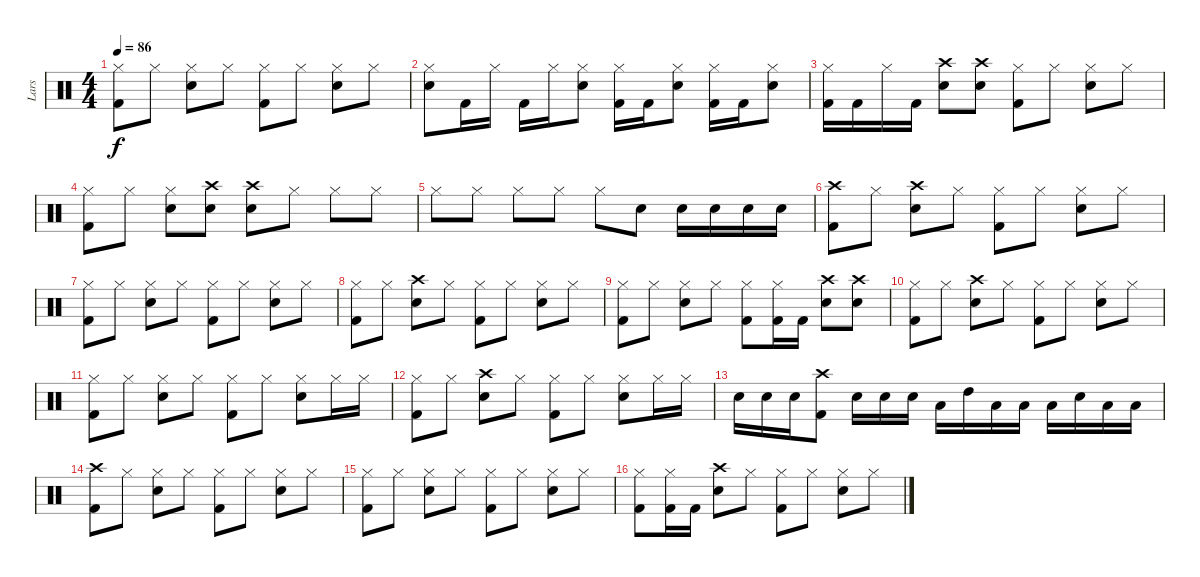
\track ("Lars" "Lars") {instrument percussion}
\staff {score}
\articulation defaults
\ts (4 4)
\tempo 86
\clef neutral
\ks c
("Hi-Hat (closed)" "Kick (hit) 2").8{dy f} "Hi-Hat (closed)".8 ("Hi-Hat (closed)" "Electric Snare (hit)").8 "Hi-Hat (closed)".8 ("Hi-Hat (closed)" "Kick (hit) 2").8 "Hi-Hat (closed)".8 ("Hi-Hat (closed)" "Electric Snare (hit)").8 "Hi-Hat (closed)".8 |
("Hi-Hat (closed)" "Electric Snare (hit)").8 "Kick (hit) 2".16 "Hi-Hat (closed)".16 "Kick (hit) 2".16 "Hi-Hat (closed)".16 ("Hi-Hat (closed)" "Electric Snare (hit)").8 ("Hi-Hat (closed)" "Kick (hit) 2").16 "Kick (hit) 2".16 ("Hi-Hat (closed)" "Electric Snare (hit)").8 ("Hi-Hat (closed)" "Kick (hit) 2").16 "Kick (hit) 2".16 ("Hi-Hat (closed)" "Electric Snare (hit)").8 |
("Hi-Hat (closed)" "Kick (hit) 2").16 "Kick (hit) 2".16 "Hi-Hat (closed)".16 "Kick (hit) 2".16 ("Crash high (hit)" "Electric Snare (hit)").8 ("Crash high (hit)" "Electric Snare (hit)").8 ("Hi-Hat (closed)" "Kick (hit) 2").8 "Hi-Hat (closed)".8 ("Hi-Hat (closed)" "Electric Snare (hit)").8 "Hi-Hat (closed)".8 |
("Hi-Hat (closed)" "Kick (hit) 2").8 "Hi-Hat (closed)".8 ("Hi-Hat (closed)" "Electric Snare (hit)").8 ("Crash high (hit)" "Electric Snare (hit)").8 ("Crash high (hit)" "Electric Snare (hit)").8 "Hi-Hat (closed)".8 "Hi-Hat (closed)".8 "Hi-Hat (closed)".8 |
"Hi-Hat (closed)".8 "Hi-Hat (closed)".8 "Hi-Hat (closed)".8 "Hi-Hat (closed)".8 "Hi-Hat (closed)".8 "Electric Snare (hit)".8 "Electric Snare (hit)".16 "Electric Snare (hit)".16 "Electric Snare (hit)".16 "Electric Snare (hit)".16 |
("Crash high (hit)" "Kick (hit) 2").8 "Hi-Hat (closed)".8 ("Crash high (hit)" "Electric Snare (hit)").8 "Hi-Hat (closed)".8 ("Hi-Hat (closed)" "Kick (hit) 2").8 "Hi-Hat (closed)".8 ("Hi-Hat (closed)" "Electric Snare (hit)").8 "Hi-Hat (closed)".8 |
("Hi-Hat (closed)" "Kick (hit) 2").8 "Hi-Hat (closed)".8 ("Hi-Hat (closed)" "Electric Snare (hit)").8 "Hi-Hat (closed)".8 ("Hi-Hat (closed)" "Kick (hit) 2").8 "Hi-Hat (closed)".8 ("Hi-Hat (closed)" "Electric Snare (hit)").8 "Hi-Hat (closed)".8 |
("Hi-Hat (closed)" "Kick (hit) 2").8 "Hi-Hat (closed)".8 ("Crash high (hit)" "Electric Snare (hit)").8 "Hi-Hat (closed)".8 ("Hi-Hat (closed)" "Kick (hit) 2").8 "Hi-Hat (closed)".8 ("Hi-Hat (closed)" "Electric Snare (hit)").8 "Hi-Hat (closed)".8 |
("Hi-Hat (closed)" "Kick (hit) 2").8 "Hi-Hat (closed)".8 ("Hi-Hat (closed)" "Electric Snare (hit)").8 "Hi-Hat (closed)".8 ("Hi-Hat (closed)" "Kick (hit) 2").8 ("Hi-Hat (closed)" "Kick (hit) 2").16 "Kick (hit) 2".16 ("Crash high (hit)" "Electric Snare (hit)").8 ("Crash high (hit)" "Electric Snare (hit)").8 |
("Hi-Hat (closed)" "Kick (hit) 2").8 "Hi-Hat (closed)".8 ("Crash high (hit)" "Electric Snare (hit)").8 "Hi-Hat (closed)".8 ("Hi-Hat (closed)" "Kick (hit) 2").8 "Hi-Hat (closed)".8 ("Hi-Hat (closed)" "Electric Snare (hit)").8 "Hi-Hat (closed)".8 |
("Hi-Hat (closed)" "Kick (hit) 2").8 "Hi-Hat (closed)".8 ("Hi-Hat (closed)" "Electric Snare (hit)").8 "Hi-Hat (closed)".8 ("Hi-Hat (closed)" "Kick (hit) 2").8 "Hi-Hat (closed)".8 ("Hi-Hat (closed)" "Electric Snare (hit)").8 "Hi-Hat (closed)".16 "Hi-Hat (closed)".16 |
("Hi-Hat (closed)" "Kick (hit) 2").8 "Hi-Hat (closed)".8 ("Crash high (hit)" "Electric Snare (hit)").8 "Hi-Hat (closed)".8 ("Hi-Hat (closed)" "Kick (hit) 2").8 "Hi-Hat (closed)".8 ("Hi-Hat (closed)" "Electric Snare (hit)").8 "Hi-Hat (closed)".16 "Hi-Hat (closed)".16 |
"Electric Snare (hit)".16 "Electric Snare (hit)".16 "Electric Snare (hit)".16 ("Crash high (hit)" "Kick (hit) 2").8 "Electric Snare (hit)".16 "Electric Snare (hit)".16 "Electric Snare (hit)".16 "Low Tom (hit)".16 "High Tom (hit)".16 "Low Tom (hit)".16 "Low Tom (hit)".16 "Low Tom (hit)".16 "Electric Snare (hit)".16 "Low Tom (hit)".16 "Low Tom (hit)".16 |
("Crash high (hit)" "Kick (hit) 2").8 "Hi-Hat (closed)".8 ("Hi-Hat (closed)" "Electric Snare (hit)").8 "Hi-Hat (closed)".8 ("Hi-Hat (closed)" "Kick (hit) 2").8 "Hi-Hat (closed)".8 ("Hi-Hat (closed)" "Electric Snare (hit)").8 "Hi-Hat (closed)".8 |
("Hi-Hat (closed)" "Kick (hit) 2").8 "Hi-Hat (closed)".8 ("Hi-Hat (closed)" "Electric Snare (hit)").8 "Hi-Hat (closed)".8 ("Hi-Hat (closed)" "Kick (hit) 2").8 "Hi-Hat (closed)".8 ("Hi-Hat (closed)" "Electric Snare (hit)").8 "Hi-Hat (closed)".8 |
("Hi-Hat (closed)" "Kick (hit) 2").8 ("Hi-Hat (closed)" "Kick (hit) 2").16 "Kick (hit) 2".16 ("Crash high (hit)" "Electric Snare (hit)").8 "Hi-Hat (closed)".8 ("Hi-Hat (closed)" "Kick (hit) 2").8 "Hi-Hat (closed)".8 ("Hi-Hat (closed)" "Electric Snare (hit)").8 "Hi-Hat (closed)".8
